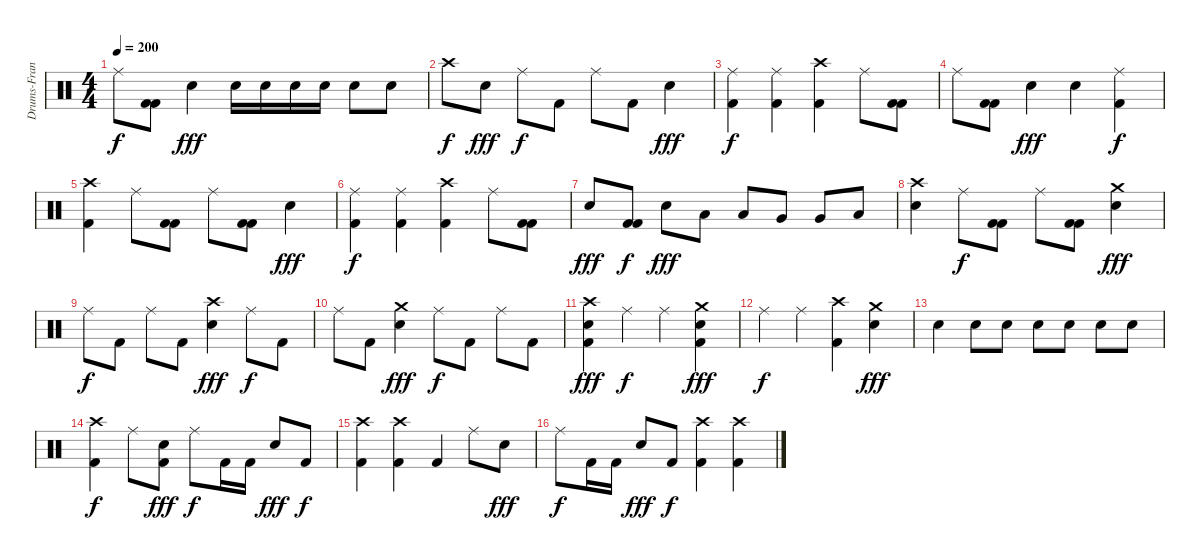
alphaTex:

\track ("Drums-Francis Mark" "Drums-Fran") {instrument percussion}
\staff {score}
\articulation defaults
\ts (4 4)
\tempo 200
\clef neutral
\ks c "Ride (middle)".8{dy f}
("Kick (hit) 2" "Kick (hit) 2").8 "Electric Snare (hit)".4{dy fff} "Electric Snare (hit)".16 "Electric Snare (hit)".16 "Electric Snare (hit)".16 "Electric Snare (hit)".16 "Electric Snare (hit)".8 "Electric Snare (hit)".8 |
"Crash high (hit)".8{dy f} "Electric Snare (hit)".8{dy fff} "Ride (middle)".8{dy f} "Kick (hit) 2".8 "Ride (middle)".8 "Kick (hit) 2".8 "Electric Snare (hit)".4{dy fff} |
("Ride (middle)" "Kick (hit) 2").4{dy f} ("Ride (middle)" "Kick (hit) 2").4 ("Crash high (hit)" "Kick (hit) 2").4 "Ride (middle)".8 ("Kick (hit) 2" "Kick (hit) 2").8 |
"Ride (middle)".8 ("Kick (hit) 2" "Kick (hit) 2").8 "Electric Snare (hit)".4{dy fff} "Electric Snare (hit)".4 ("Ride (middle)" "Kick (hit) 2").4{dy f} |
("Crash high (hit)" "Kick (hit) 2").4 "Ride (middle)".8 ("Kick (hit) 2" "Kick (hit) 2").8 "Ride (middle)".8 ("Kick (hit) 2" "Kick (hit) 2").8 "Electric Snare (hit)".4{dy fff} |
("Ride (middle)" "Kick (hit) 2").4{dy f} ("Ride (middle)" "Kick (hit) 2").4 ("Crash high (hit)" "Kick (hit) 2").4 "Ride (middle)".8 ("Kick (hit) 2" "Kick (hit) 2").8 |
"Electric Snare (hit)".8{dy fff} ("Kick (hit) 2" "Kick (hit) 2").8{dy f} "Electric Snare (hit)".8{dy fff} "Low Tom (hit)".8 "Low Tom (hit)".8 "Very Low Tom (hit)".8 "Very Low Tom (hit)".8 "Low Floor Tom (hit)".8 |
("Crash high (hit)" "Electric Snare (hit)").4 "Ride (middle)".8{dy f} ("Kick (hit) 2" "Kick (hit) 2").8 "Ride (middle)".8 ("Kick (hit) 2" "Kick (hit) 2").8 ("Crash medium (hit)" "Electric Snare (hit)").4{dy fff} |
"Ride (middle)".8{dy f} "Kick (hit) 2".8 "Ride (middle)".8 "Kick (hit) 2".8 ("Crash high (hit)" "Electric Snare (hit)").4{dy fff} "Ride (middle)".8{dy f} "Kick (hit) 2".8 |
"Ride (middle)".8 "Kick (hit) 2".8 ("Crash medium (hit)" "Electric Snare (hit)").4{dy fff} "Ride (middle)".8{dy f} "Kick (hit) 2".8 "Ride (middle)".8 "Kick (hit) 2".8 |
("Crash high (hit)" "Electric Snare (hit)" "Kick (hit) 2").4{dy fff} "Ride (middle)".4{dy f} "Ride (middle)".4 ("Crash medium (hit)" "Electric Snare (hit)" "Kick (hit) 2").4{dy fff} |
"Ride (middle)".4{dy f} "Ride (middle)".4 ("Crash high (hit)" "Kick (hit) 2").4 ("Crash medium (hit)" "Electric Snare (hit)").4{dy fff} |
"Electric Snare (hit)".4 "Electric Snare (hit)".8 "Electric Snare (hit)".8 "Electric Snare (hit)".8 "Electric Snare (hit)".8 "Electric Snare (hit)".8 "Electric Snare (hit)".8 |
("Crash high (hit)" "Kick (hit) 2").4{dy f} "Ride (middle)".8 ("Electric Snare (hit)" "Kick (hit) 2").8{dy fff} "Ride (middle)".8{dy f} "Kick (hit) 2".16 "Kick (hit) 2".16 "Electric Snare (hit)".8{dy fff} "Kick (hit) 2".8{dy f} |
("Crash high (hit)" "Kick (hit) 2").4 ("Crash high (hit)" "Kick (hit) 2").4 "Kick (hit) 2".4 "Ride (middle)".8 "Electric Snare (hit)".8{dy fff} |
"Ride (middle)".8{dy f} "Kick (hit) 2".16 "Kick (hit) 2".16 "Electric Snare (hit)".8{dy fff} "Kick (hit) 2".8{dy f} ("Crash high (hit)" "Kick (hit) 2").4 ("Crash high (hit)" "Kick (hit) 2").4
